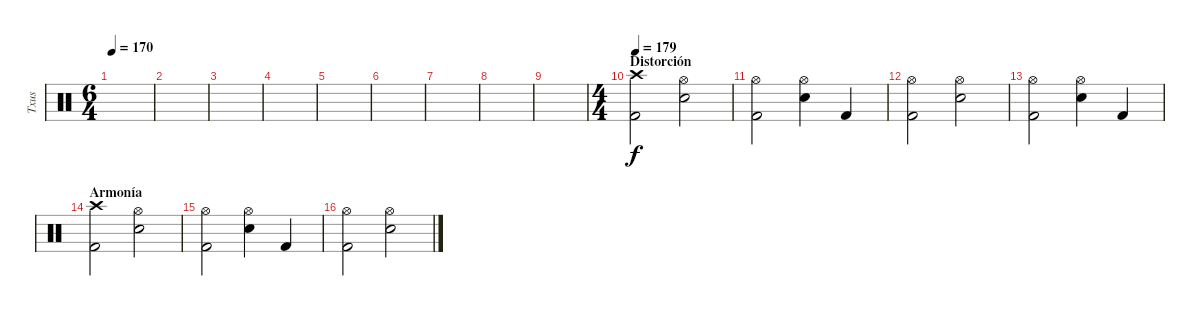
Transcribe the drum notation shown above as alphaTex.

\track ("Txus" "Txus") {instrument percussion}
\staff {score}
\articulation defaults
\ts (6 4)
\tempo 170
\clef neutral
\ks c
|
|
|
|
|
|
|
|
|
\ts (4 4)
\section ("" "Distorción")
\tempo 179
("Kick (hit) 2" "Crash high (hit)").2 ("Hi-Hat (open)" "Electric Snare (hit)").2 |
("Kick (hit) 2" "Hi-Hat (open)").2 ("Hi-Hat (open)" "Electric Snare (hit)").4 "Kick (hit) 2".4 |
("Kick (hit) 2" "Hi-Hat (open)").2 ("Hi-Hat (open)" "Electric Snare (hit)").2 |
("Kick (hit) 2" "Hi-Hat (open)").2 ("Hi-Hat (open)" "Electric Snare (hit)").4 "Kick (hit) 2".4 |
\section ("" "Armonía")
("Kick (hit) 2" "Crash high (hit)").2 ("Hi-Hat (open)" "Electric Snare (hit)").2 |
("Kick (hit) 2" "Hi-Hat (open)").2 ("Hi-Hat (open)" "Electric Snare (hit)").4 "Kick (hit) 2".4 |
("Kick (hit) 2" "Hi-Hat (open)").2 ("Hi-Hat (open)" "Electric Snare (hit)").2
